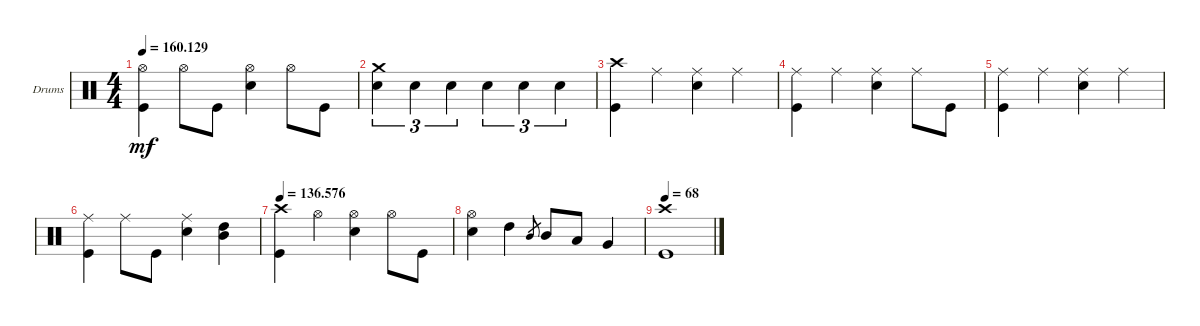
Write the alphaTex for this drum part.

\defaultSystemsLayout 4
\bracketExtendMode groupsimilarinstruments
\firstSystemTrackNameOrientation horizontal
\otherSystemsTrackNameOrientation horizontal
\track ("Drumkit" "Drums") {instrument percussion}
\staff {score}
\articulation defaults
\ts (4 4)
\tempo
160.129
\accidentals auto
\clef neutral
\ottava regular
\simile none
\ks c
("Kick (hit)" "Hi-Hat (open)").4{dy mf} "Hi-Hat (open)".8 "Kick (hit)".8 ("Snare (hit) 2" "Hi-Hat (open)").4 "Hi-Hat (open)".8 "Kick (hit)".8 |
("Snare (hit) 2" "Crash medium (hit)").4{tu (3 2)} "Snare (hit) 2".4{tu (3 2)} "Snare (hit) 2".4{tu (3 2)} "Snare (hit) 2".4{tu (3 2)} "Snare (hit) 2".4{tu (3 2)} "Snare (hit) 2".4{tu (3 2)} |
("Kick (hit)" "Crash high (hit)").4 "Ride (middle)".4 ("Ride (middle)" "Snare (hit) 2").4 "Ride (middle)".4 |
("Kick (hit)" "Ride (middle)").4 "Ride (middle)".4 ("Ride (middle)" "Snare (hit) 2").4 "Ride (middle)".8 "Kick (hit)".8 |
("Kick (hit)" "Ride (middle)").4 "Ride (middle)".4 ("Ride (middle)" "Snare (hit) 2").4 "Ride (middle)".4 |
("Kick (hit)" "Ride (middle)").4 "Ride (middle)".8 "Kick (hit)".8 ("Ride (middle)" "Snare (hit) 2").4 ("High Tom (hit)" "Mid Tom (hit)").4 |
\tempo
136.576 ("Kick (hit)" "Crash high (hit)").4 "Hi-Hat (open)".4 ("Hi-Hat (open)" "Snare (hit) 2").4 "Hi-Hat (open)".8 "Kick (hit)".8 |
("Snare (hit) 2" "Hi-Hat (open)").4 "High Tom (hit)".4 "Mid Tom (hit)".8{gr} "Mid Tom (hit)".8 "Low Tom (hit)".8 "Very Low Tom (hit)".4 |
\tempo (68 0.00625)
("Kick (hit)" "Crash high (hit)").1
